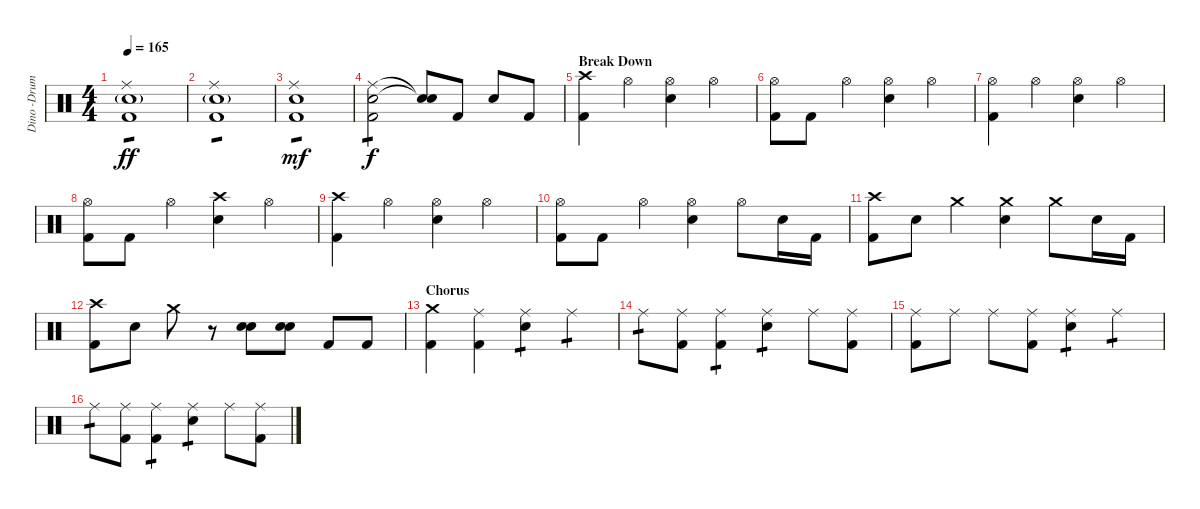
\track ("Dino -Drums" "Dino -Drum") {instrument percussion}
\staff {score}
\articulation defaults
\ts (4 4)
\tempo 165
\clef neutral
\ks c
("Ride (middle)" "Electric Snare (hit)"{g} "Kick (hit) 2").1{tp 1 dy ff} |
("Ride (middle)" "Electric Snare (hit)"{g} "Kick (hit) 2").1{tp 1} |
("Ride (middle)" "Electric Snare (hit)" "Kick (hit) 2").1{tp 1 dy mf} |
("Ride (middle)" "Electric Snare (hit)" "Kick (hit) 2").2{tp 1 dy f} ("Snare (hit)"{t} "Snare (hit)"{t}).8 "Kick (hit) 2".8 "Electric Snare (hit)".8 "Kick (hit) 2".8 |
\section ("" "Break Down")
("Crash high (hit)" "Kick (hit) 2").4 "Hi-Hat (open)".4 ("Hi-Hat (open)" "Electric Snare (hit)").4 "Hi-Hat (open)".4 |
("Hi-Hat (open)" "Kick (hit) 2").8 "Kick (hit) 2".8 "Hi-Hat (open)".4 ("Hi-Hat (open)" "Electric Snare (hit)").4 "Hi-Hat (open)".4 |
("Hi-Hat (open)" "Kick (hit) 2").4 "Hi-Hat (open)".4 ("Hi-Hat (open)" "Electric Snare (hit)").4 "Hi-Hat (open)".4 |
("Hi-Hat (open)" "Kick (hit) 2").8 "Kick (hit) 2".8 "Hi-Hat (open)".4 ("Crash high (hit)" "Electric Snare (hit)").4 "Hi-Hat (open)".4 |
("Crash high (hit)" "Kick (hit) 2").4 "Hi-Hat (open)".4 ("Hi-Hat (open)" "Electric Snare (hit)").4 "Hi-Hat (open)".4 |
("Hi-Hat (open)" "Kick (hit) 2").8 "Kick (hit) 2".8 "Hi-Hat (open)".4 ("Hi-Hat (open)" "Electric Snare (hit)").4 "Hi-Hat (open)".8 "Electric Snare (hit)".16 "Kick (hit) 2".16 |
("Crash high (hit)" "Kick (hit) 2").8 "Electric Snare (hit)".8 "Crash medium (hit)".4 ("Crash medium (hit)" "Electric Snare (hit)").4 "Crash medium (hit)".8 "Electric Snare (hit)".16 "Kick (hit) 2".16 |
("Crash high (hit)" "Kick (hit) 2").8 "Electric Snare (hit)".8 "Crash medium (hit)".8 r.8 ("Electric Snare (hit)" "Electric Snare (hit)").8{bd 480} ("Electric Snare (hit)" "Electric Snare (hit)").8{bd 480} "Kick (hit) 2".8 "Kick (hit) 2".8 |
\section ("" "Chorus")
("Crash medium (hit)" "Kick (hit) 2").4 ("Ride (middle)" "Kick (hit) 2").4 ("Ride (middle)" "Electric Snare (hit)").4{tp 1} "Ride (middle)".4{tp 1} |
"Ride (middle)".8{tp 1} ("Ride (middle)" "Kick (hit) 2").8 ("Ride (middle)" "Kick (hit) 2").4{tp 1} ("Ride (middle)" "Electric Snare (hit)").4{tp 1} "Ride (middle)".8 ("Ride (middle)" "Kick (hit) 2").8 |
("Ride (middle)" "Kick (hit) 2").8 "Ride (middle)".8 "Ride (middle)".8 ("Ride (middle)" "Kick (hit) 2").8 ("Ride (middle)" "Electric Snare (hit)").4{tp 1} "Ride (middle)".4{tp 1} |
"Ride (middle)".8{tp 1} ("Ride (middle)" "Kick (hit) 2").8 ("Ride (middle)" "Kick (hit) 2").4{tp 1} ("Ride (middle)" "Electric Snare (hit)").4{tp 1} "Ride (middle)".8 ("Ride (middle)" "Kick (hit) 2").8
